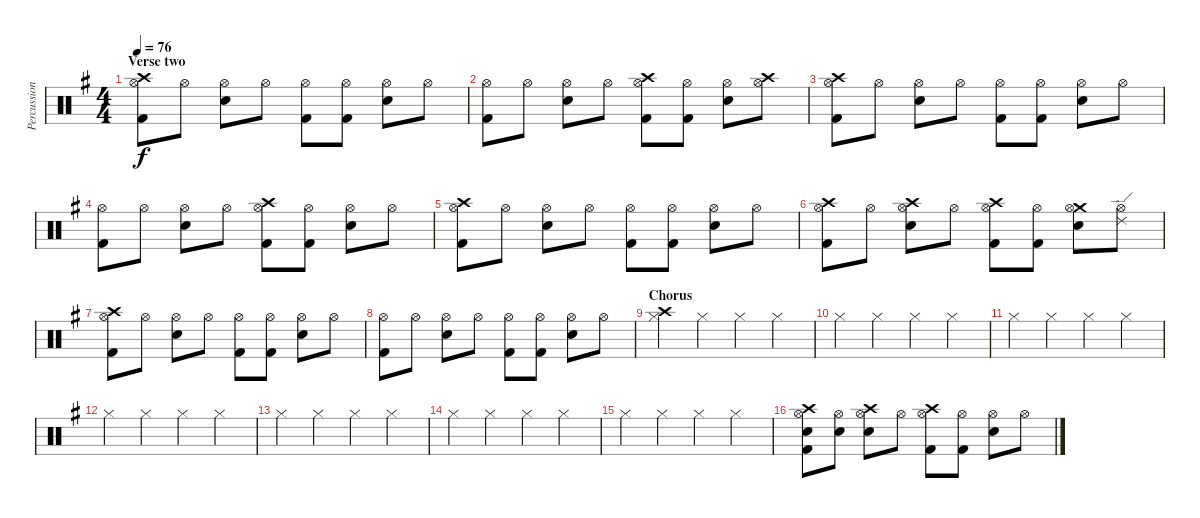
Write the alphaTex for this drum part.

\track ("Percussions" "Percussion") {instrument percussion}
\staff {score}
\articulation defaults
\ts (4 4)
\section ("" "Verse two")
\tempo 76
\clef neutral
\ks g
("Crash high (hit)" "Kick (hit) 2" "Hi-Hat (open)").8{dy f} "Hi-Hat (open)".8 ("Hi-Hat (open)" "Snare (hit) 2").8 "Hi-Hat (open)".8 ("Kick (hit) 2" "Hi-Hat (open)").8 ("Kick (hit) 2" "Hi-Hat (open)").8 ("Hi-Hat (open)" "Snare (hit) 2").8 "Hi-Hat (open)".8 |
("Kick (hit) 2" "Hi-Hat (open)").8 "Hi-Hat (open)".8 ("Hi-Hat (open)" "Snare (hit) 2").8 "Hi-Hat (open)".8 ("Crash high (hit)" "Kick (hit) 2" "Hi-Hat (open)").8 ("Kick (hit) 2" "Hi-Hat (open)").8 ("Hi-Hat (open)" "Snare (hit) 2").8 ("Crash high (hit)" "Hi-Hat (open)").8 |
("Crash high (hit)" "Kick (hit) 2" "Hi-Hat (open)").8 "Hi-Hat (open)".8 ("Hi-Hat (open)" "Snare (hit) 2").8 "Hi-Hat (open)".8 ("Kick (hit) 2" "Hi-Hat (open)").8 ("Kick (hit) 2" "Hi-Hat (open)").8 ("Hi-Hat (open)" "Snare (hit) 2").8 "Hi-Hat (open)".8 |
("Kick (hit) 2" "Hi-Hat (open)").8 "Hi-Hat (open)".8 ("Hi-Hat (open)" "Snare (hit) 2").8 "Hi-Hat (open)".8 ("Crash high (hit)" "Kick (hit) 2" "Hi-Hat (open)").8 ("Kick (hit) 2" "Hi-Hat (open)").8 ("Hi-Hat (open)" "Snare (hit) 2").8 "Hi-Hat (open)".8 |
("Crash high (hit)" "Kick (hit) 2" "Hi-Hat (open)").8 "Hi-Hat (open)".8 ("Hi-Hat (open)" "Snare (hit) 2").8 "Hi-Hat (open)".8 ("Kick (hit) 2" "Hi-Hat (open)").8 ("Kick (hit) 2" "Hi-Hat (open)").8 ("Hi-Hat (open)" "Snare (hit) 2").8 "Hi-Hat (open)".8 |
("Crash high (hit)" "Kick (hit) 2" "Hi-Hat (open)").8 "Hi-Hat (open)".8 ("Crash high (hit)" "Hi-Hat (open)" "Snare (hit) 2").8 "Hi-Hat (open)".8 ("Crash high (hit)" "Kick (hit) 2" "Hi-Hat (open)").8 ("Kick (hit) 2" "Hi-Hat (open)").8 ("Crash medium (hit)" "Hi-Hat (open)" "Snare (hit) 2").8 ("Ride (edge) 2" "Hi-Hat (open)").8 |
("Crash high (hit)" "Kick (hit) 2" "Hi-Hat (open)").8 "Hi-Hat (open)".8 ("Hi-Hat (open)" "Snare (hit) 2").8 "Hi-Hat (open)".8 ("Kick (hit) 2" "Hi-Hat (open)").8 ("Kick (hit) 2" "Hi-Hat (open)").8 ("Hi-Hat (open)" "Snare (hit) 2").8 "Hi-Hat (open)".8 |
("Kick (hit) 2" "Hi-Hat (open)").8 "Hi-Hat (open)".8 ("Hi-Hat (open)" "Snare (hit) 2").8 "Hi-Hat (open)".8 ("Kick (hit) 2" "Hi-Hat (open)").8 ("Kick (hit) 2" "Hi-Hat (open)").8 ("Hi-Hat (open)" "Snare (hit) 2").8 "Hi-Hat (open)".8 |
\section ("" "Chorus")
("Crash high (hit)" "Hi-Hat (closed)").4 "Hi-Hat (closed)".4 "Hi-Hat (closed)".4 "Hi-Hat (closed)".4 |
"Hi-Hat (closed)".4 "Hi-Hat (closed)".4 "Hi-Hat (closed)".4 "Hi-Hat (closed)".4 |
"Hi-Hat (closed)".4 "Hi-Hat (closed)".4 "Hi-Hat (closed)".4 "Hi-Hat (closed)".4 |
"Hi-Hat (closed)".4 "Hi-Hat (closed)".4 "Hi-Hat (closed)".4 "Hi-Hat (closed)".4 |
"Hi-Hat (closed)".4 "Hi-Hat (closed)".4 "Hi-Hat (closed)".4 "Hi-Hat (closed)".4 |
"Hi-Hat (closed)".4 "Hi-Hat (closed)".4 "Hi-Hat (closed)".4 "Hi-Hat (closed)".4 |
"Hi-Hat (closed)".4 "Hi-Hat (closed)".4 "Hi-Hat (closed)".4 "Hi-Hat (closed)".4 |
("Crash high (hit)" "Kick (hit) 2" "Hi-Hat (open)" "Snare (hit) 2").8 ("Hi-Hat (open)" "Snare (hit) 2").8 ("Crash high (hit)" "Hi-Hat (open)" "Snare (hit) 2").8 "Hi-Hat (open)".8 ("Crash high (hit)" "Kick (hit) 2" "Hi-Hat (open)").8 ("Kick (hit) 2" "Hi-Hat (open)").8 ("Hi-Hat (open)" "Snare (hit) 2").8 "Hi-Hat (open)".8
